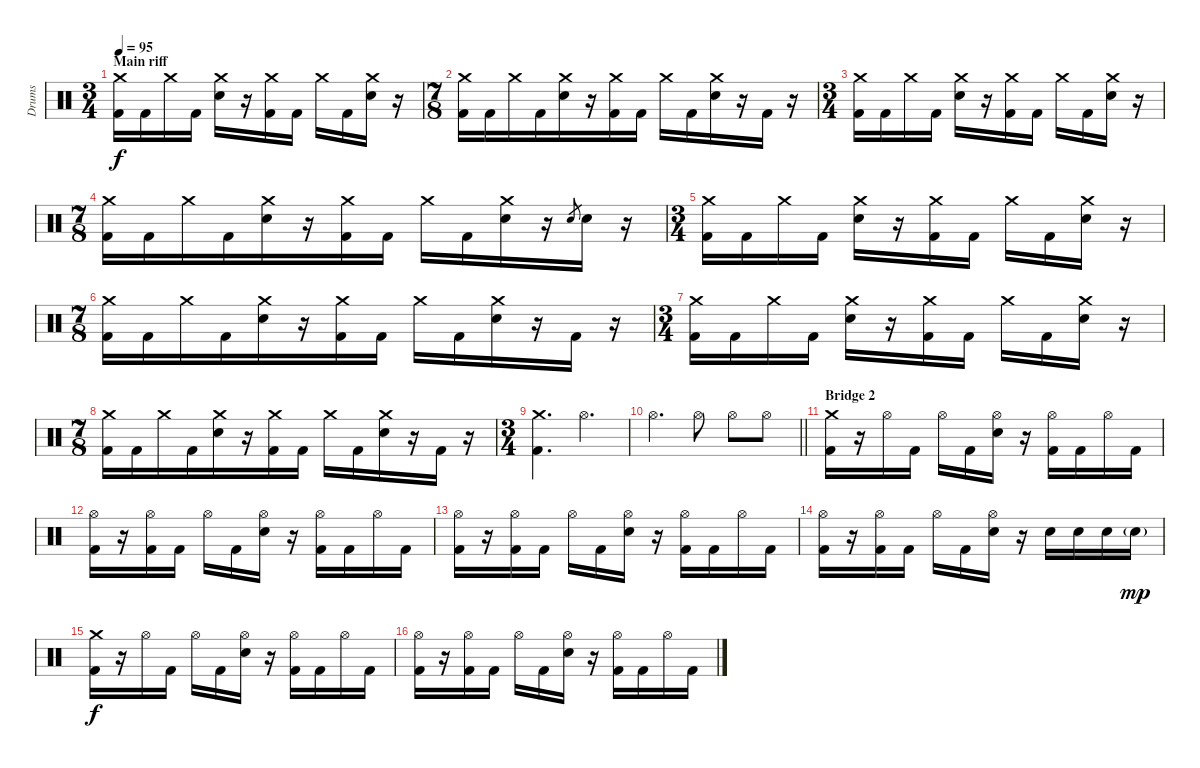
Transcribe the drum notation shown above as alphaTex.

\track ("Drums" "Drums") {instrument percussion}
\staff {score}
\articulation defaults
\ts (3 4)
\section ("" "Main riff")
\tempo 95
\clef neutral
\ks c
("Crash medium (hit)" "Kick (hit) 2").16{dy f} "Kick (hit) 2".16 "Crash medium (hit)".16 "Kick (hit) 2".16 ("Crash medium (hit)" "Electric Snare (hit)").16 r.16 ("Crash medium (hit)" "Kick (hit) 2").16 "Kick (hit) 2".16 "Crash medium (hit)".16 "Kick (hit) 2".16 ("Crash medium (hit)" "Electric Snare (hit)").16 r.16 |
\ts (7 8)
("Crash medium (hit)" "Kick (hit) 2").16 "Kick (hit) 2".16 "Crash medium (hit)".16 "Kick (hit) 2".16 ("Crash medium (hit)" "Electric Snare (hit)").16 r.16 ("Crash medium (hit)" "Kick (hit) 2").16 "Kick (hit) 2".16 "Crash medium (hit)".16 "Kick (hit) 2".16 ("Crash medium (hit)" "Electric Snare (hit)").16 r.16 "Kick (hit) 2".16 r.16 |
\ts (3 4)
("Crash medium (hit)" "Kick (hit) 2").16 "Kick (hit) 2".16 "Crash medium (hit)".16 "Kick (hit) 2".16 ("Crash medium (hit)" "Electric Snare (hit)").16 r.16 ("Crash medium (hit)" "Kick (hit) 2").16 "Kick (hit) 2".16 "Crash medium (hit)".16 "Kick (hit) 2".16 ("Crash medium (hit)" "Electric Snare (hit)").16 r.16 |
\ts (7 8)
("Crash medium (hit)" "Kick (hit) 2").16 "Kick (hit) 2".16 "Crash medium (hit)".16 "Kick (hit) 2".16 ("Crash medium (hit)" "Electric Snare (hit)").16 r.16 ("Crash medium (hit)" "Kick (hit) 2").16 "Kick (hit) 2".16 "Crash medium (hit)".16 "Kick (hit) 2".16 ("Crash medium (hit)" "Electric Snare (hit)").16 r.16 "Electric Snare (hit)".8{gr} "Electric Snare (hit)".16 r.16 |
\ts (3 4)
("Crash medium (hit)" "Kick (hit) 2").16 "Kick (hit) 2".16 "Crash medium (hit)".16 "Kick (hit) 2".16 ("Crash medium (hit)" "Electric Snare (hit)").16 r.16 ("Crash medium (hit)" "Kick (hit) 2").16 "Kick (hit) 2".16 "Crash medium (hit)".16 "Kick (hit) 2".16 ("Crash medium (hit)" "Electric Snare (hit)").16 r.16 |
\ts (7 8)
("Crash medium (hit)" "Kick (hit) 2").16 "Kick (hit) 2".16 "Crash medium (hit)".16 "Kick (hit) 2".16 ("Crash medium (hit)" "Electric Snare (hit)").16 r.16 ("Crash medium (hit)" "Kick (hit) 2").16 "Kick (hit) 2".16 "Crash medium (hit)".16 "Kick (hit) 2".16 ("Crash medium (hit)" "Electric Snare (hit)").16 r.16 "Kick (hit) 2".16 r.16 |
\ts (3 4)
("Crash medium (hit)" "Kick (hit) 2").16 "Kick (hit) 2".16 "Crash medium (hit)".16 "Kick (hit) 2".16 ("Crash medium (hit)" "Electric Snare (hit)").16 r.16 ("Crash medium (hit)" "Kick (hit) 2").16 "Kick (hit) 2".16 "Crash medium (hit)".16 "Kick (hit) 2".16 ("Crash medium (hit)" "Electric Snare (hit)").16 r.16 |
\ts (7 8)
("Crash medium (hit)" "Kick (hit) 2").16 "Kick (hit) 2".16 "Crash medium (hit)".16 "Kick (hit) 2".16 ("Crash medium (hit)" "Electric Snare (hit)").16 r.16 ("Crash medium (hit)" "Kick (hit) 2").16 "Kick (hit) 2".16 "Crash medium (hit)".16 "Kick (hit) 2".16 ("Crash medium (hit)" "Electric Snare (hit)").16 r.16 "Kick (hit) 2".16 r.16 |
\ts (3 4)
("Crash medium (hit)" "Kick (hit) 2").4{d} "Hi-Hat (open)".4{d} |
\barLineRight lightlight "Hi-Hat (open)".4{d} "Hi-Hat (open)".8 "Hi-Hat (open)".8 "Hi-Hat (open)".8
|
\section ("" "Bridge 2")
("Crash medium (hit)" "Kick (hit) 2").16 r.16 "Hi-Hat (open)".16 "Kick (hit) 2".16 "Hi-Hat (open)".16 "Kick (hit) 2".16 ("Hi-Hat (open)" "Electric Snare (hit)").16 r.16 ("Hi-Hat (open)" "Kick (hit) 2").16 "Kick (hit) 2".16 "Hi-Hat (open)".16 "Kick (hit) 2".16 |
("Hi-Hat (open)" "Kick (hit) 2").16 r.16 ("Hi-Hat (open)" "Kick (hit) 2").16 "Kick (hit) 2".16 "Hi-Hat (open)".16 "Kick (hit) 2".16 ("Hi-Hat (open)" "Electric Snare (hit)").16 r.16 ("Hi-Hat (open)" "Kick (hit) 2").16 "Kick (hit) 2".16 "Hi-Hat (open)".16 "Kick (hit) 2".16 |
("Hi-Hat (open)" "Kick (hit) 2").16 r.16 ("Hi-Hat (open)" "Kick (hit) 2").16 "Kick (hit) 2".16 "Hi-Hat (open)".16 "Kick (hit) 2".16 ("Hi-Hat (open)" "Electric Snare (hit)").16 r.16 ("Hi-Hat (open)" "Kick (hit) 2").16 "Kick (hit) 2".16 "Hi-Hat (open)".16 "Kick (hit) 2".16 |
("Hi-Hat (open)" "Kick (hit) 2").16 r.16 ("Hi-Hat (open)" "Kick (hit) 2").16 "Kick (hit) 2".16 "Hi-Hat (open)".16 "Kick (hit) 2".16 ("Hi-Hat (open)" "Electric Snare (hit)").16 r.16 "Electric Snare (hit)".16 "Electric Snare (hit)".16 "Electric Snare (hit)".16 "Electric Snare (hit)"{g}.16{dy mp} |
("Crash medium (hit)" "Kick (hit) 2").16{dy f} r.16 "Hi-Hat (open)".16 "Kick (hit) 2".16 "Hi-Hat (open)".16 "Kick (hit) 2".16 ("Hi-Hat (open)" "Electric Snare (hit)").16 r.16 ("Hi-Hat (open)" "Kick (hit) 2").16 "Kick (hit) 2".16 "Hi-Hat (open)".16 "Kick (hit) 2".16 |
("Hi-Hat (open)" "Kick (hit) 2").16 r.16 ("Hi-Hat (open)" "Kick (hit) 2").16 "Kick (hit) 2".16 "Hi-Hat (open)".16 "Kick (hit) 2".16 ("Hi-Hat (open)" "Electric Snare (hit)").16 r.16 ("Hi-Hat (open)" "Kick (hit) 2").16 "Kick (hit) 2".16 "Hi-Hat (open)".16 "Kick (hit) 2".16
